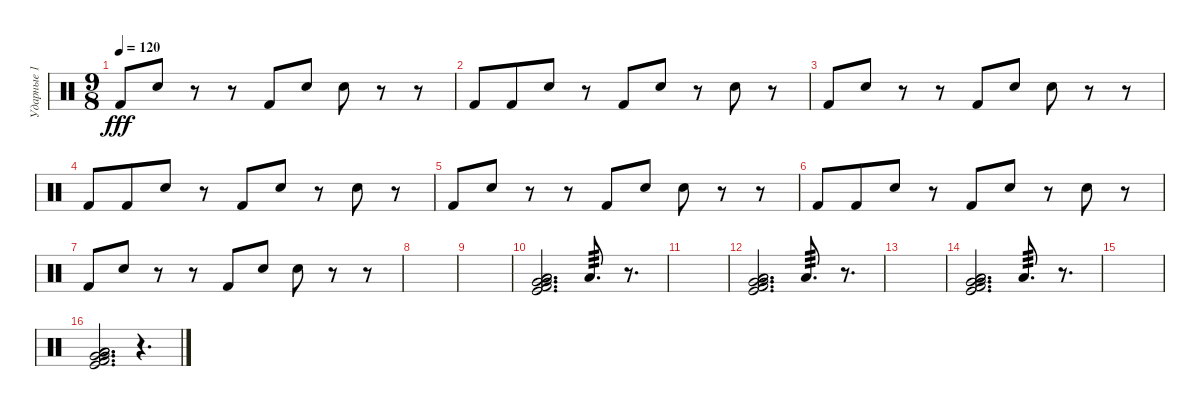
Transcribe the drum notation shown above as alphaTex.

\track ("Ударные 1" "Ударные 1") {instrument percussion}
\staff {score}
\articulation defaults
\ts (9 8)
\tempo 120
\clef neutral
\ks c "Kick (hit) 2".8{dy fff} "Snare (hit) 2".8
r.8 r.8 "Kick (hit) 2".8 "Snare (hit) 2".8 "Snare (hit) 2".8 r.8 r.8 |
"Kick (hit) 2".8 "Kick (hit) 2".8 "Snare (hit) 2".8 r.8 "Kick (hit) 2".8 "Snare (hit) 2".8 r.8 "Snare (hit) 2".8 r.8 |
"Kick (hit) 2".8 "Snare (hit) 2".8 r.8 r.8 "Kick (hit) 2".8 "Snare (hit) 2".8 "Snare (hit) 2".8 r.8 r.8 |
"Kick (hit) 2".8 "Kick (hit) 2".8 "Snare (hit) 2".8 r.8 "Kick (hit) 2".8 "Snare (hit) 2".8 r.8 "Snare (hit) 2".8 r.8 |
"Kick (hit) 2".8 "Snare (hit) 2".8 r.8 r.8 "Kick (hit) 2".8 "Snare (hit) 2".8 "Snare (hit) 2".8 r.8 r.8 |
"Kick (hit) 2".8 "Kick (hit) 2".8 "Snare (hit) 2".8 r.8 "Kick (hit) 2".8 "Snare (hit) 2".8 r.8 "Snare (hit) 2".8 r.8 |
"Kick (hit) 2".8 "Snare (hit) 2".8 r.8 r.8 "Kick (hit) 2".8 "Snare (hit) 2".8 "Snare (hit) 2".8 r.8 r.8 |
|
|
("Very Low Tom (hit)" "Low Floor Tom (hit)" "Kick (hit)" "Kick (hit) 2" "Very Low Tom (hit)" "Low Floor Tom (hit)").2{d} "Low Floor Tom (hit)".8{d tp 3} r.8{d} |
|
("Very Low Tom (hit)" "Low Floor Tom (hit)" "Kick (hit)" "Kick (hit) 2" "Very Low Tom (hit)" "Low Floor Tom (hit)").2{d} "Low Floor Tom (hit)".8{d tp 3} r.8{d} |
|
("Very Low Tom (hit)" "Low Floor Tom (hit)" "Kick (hit)" "Kick (hit) 2" "Very Low Tom (hit)" "Low Floor Tom (hit)").2{d} "Low Floor Tom (hit)".8{d tp 3} r.8{d} |
|
("Very Low Tom (hit)" "Low Floor Tom (hit)" "Kick (hit)" "Kick (hit) 2" "Very Low Tom (hit)" "Low Floor Tom (hit)").2{d} r.4{d}
